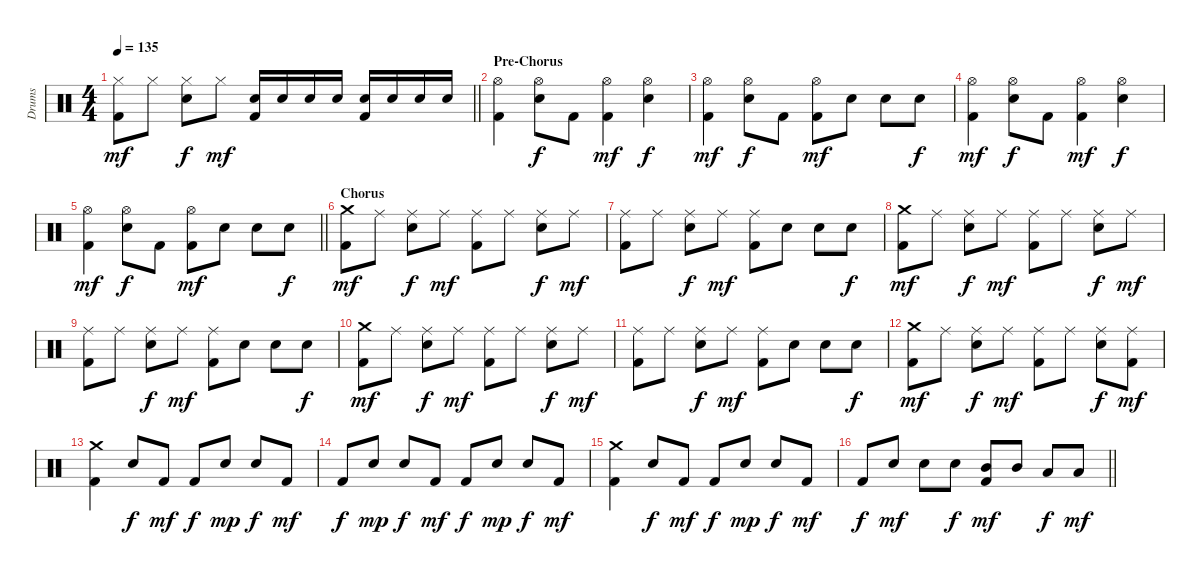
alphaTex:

\track ("Drums" "Drums") {instrument percussion}
\staff {score}
\articulation defaults
\ts (4 4)
\tempo 135
\clef neutral
\barLineRight lightlight
\ks c
("Hi-Hat (closed)" "Kick (hit) 2").8{dy mf} "Hi-Hat (closed)".8 ("Hi-Hat (closed)" "Snare (hit) 2").8{dy f} "Hi-Hat (closed)".8{dy mf} ("Snare (hit) 2" "Kick (hit) 2").16 "Snare (hit) 2".16 "Snare (hit) 2".16 "Snare (hit) 2".16 ("Snare (hit) 2" "Kick (hit) 2").16 "Snare (hit) 2".16 "Snare (hit) 2".16 "Snare (hit) 2".16 |
\section ("" "Pre-Chorus")
("Hi-Hat (open)" "Kick (hit) 2").4 ("Hi-Hat (open)" "Snare (hit) 2").8{dy f} "Kick (hit) 2".8 ("Hi-Hat (open)" "Kick (hit) 2").4{dy mf} ("Hi-Hat (open)" "Snare (hit) 2").4{dy f} |
("Hi-Hat (open)" "Kick (hit) 2").4{dy mf} ("Hi-Hat (open)" "Snare (hit) 2").8{dy f} "Kick (hit) 2".8 ("Hi-Hat (open)" "Kick (hit) 2").8{dy mf} "Snare (hit) 2".8 "Snare (hit) 2".8 "Snare (hit) 2".8{dy f} |
("Hi-Hat (open)" "Kick (hit) 2").4{dy mf} ("Hi-Hat (open)" "Snare (hit) 2").8{dy f} "Kick (hit) 2".8 ("Hi-Hat (open)" "Kick (hit) 2").4{dy mf} ("Hi-Hat (open)" "Snare (hit) 2").4{dy f} |
\barLineRight lightlight
("Hi-Hat (open)" "Kick (hit) 2").4{dy mf} ("Hi-Hat (open)" "Snare (hit) 2").8{dy f} "Kick (hit) 2".8 ("Hi-Hat (open)" "Kick (hit) 2").8{dy mf} "Snare (hit) 2".8 "Snare (hit) 2".8 "Snare (hit) 2".8{dy f} |
\section ("" "Chorus")
("Crash medium (hit)" "Kick (hit) 2").8{dy mf} "Ride (middle)".8 ("Ride (middle)" "Snare (hit) 2").8{dy f} "Ride (middle)".8{dy mf} ("Ride (middle)" "Kick (hit) 2").8 "Ride (middle)".8 ("Ride (middle)" "Snare (hit) 2").8{dy f} "Ride (middle)".8{dy mf} |
("Ride (middle)" "Kick (hit) 2").8 "Ride (middle)".8 ("Ride (middle)" "Snare (hit) 2").8{dy f} "Ride (middle)".8{dy mf} ("Ride (middle)" "Kick (hit) 2").8 "Snare (hit) 2".8 "Snare (hit) 2".8 "Snare (hit) 2".8{dy f} |
("Crash medium (hit)" "Kick (hit) 2").8{dy mf} "Ride (middle)".8 ("Ride (middle)" "Snare (hit) 2").8{dy f} "Ride (middle)".8{dy mf} ("Ride (middle)" "Kick (hit) 2").8 "Ride (middle)".8 ("Ride (middle)" "Snare (hit) 2").8{dy f} "Ride (middle)".8{dy mf} |
("Ride (middle)" "Kick (hit) 2").8 "Ride (middle)".8 ("Ride (middle)" "Snare (hit) 2").8{dy f} "Ride (middle)".8{dy mf} ("Ride (middle)" "Kick (hit) 2").8 "Snare (hit) 2".8 "Snare (hit) 2".8 "Snare (hit) 2".8{dy f} |
("Crash medium (hit)" "Kick (hit) 2").8{dy mf} "Ride (middle)".8 ("Ride (middle)" "Snare (hit) 2").8{dy f} "Ride (middle)".8{dy mf} ("Ride (middle)" "Kick (hit) 2").8 "Ride (middle)".8 ("Ride (middle)" "Snare (hit) 2").8{dy f} "Ride (middle)".8{dy mf} |
("Ride (middle)" "Kick (hit) 2").8 "Ride (middle)".8 ("Ride (middle)" "Snare (hit) 2").8{dy f} "Ride (middle)".8{dy mf} ("Ride (middle)" "Kick (hit) 2").8 "Snare (hit) 2".8 "Snare (hit) 2".8 "Snare (hit) 2".8{dy f} |
("Crash medium (hit)" "Kick (hit) 2").8{dy mf} "Ride (middle)".8 ("Ride (middle)" "Snare (hit) 2").8{dy f} "Ride (middle)".8{dy mf} ("Ride (middle)" "Kick (hit) 2").8 "Ride (middle)".8 ("Ride (middle)" "Snare (hit) 2").8{dy f} ("Ride (middle)" "Kick (hit) 2").8{dy mf} |
("Crash medium (hit)" "Kick (hit) 2").4 "Snare (hit) 2".8{dy f} "Kick (hit) 2".8{dy mf} "Kick (hit) 2".8{dy f} "Snare (hit) 2".8{dy mp} "Snare (hit) 2".8{dy f} "Kick (hit) 2".8{dy mf} |
"Kick (hit) 2".8{dy f} "Snare (hit) 2".8{dy mp} "Snare (hit) 2".8{dy f} "Kick (hit) 2".8{dy mf} "Kick (hit) 2".8{dy f} "Snare (hit) 2".8{dy mp} "Snare (hit) 2".8{dy f} "Kick (hit) 2".8{dy mf} |
("Crash medium (hit)" "Kick (hit) 2").4 "Snare (hit) 2".8{dy f} "Kick (hit) 2".8{dy mf} "Kick (hit) 2".8{dy f} "Snare (hit) 2".8{dy mp} "Snare (hit) 2".8{dy f} "Kick (hit) 2".8{dy mf} |
\barLineRight lightlight "Kick (hit) 2".8{dy f} "Snare (hit) 2".8{dy mf} "Snare (hit) 2".8 "Snare (hit) 2".8{dy f}
("Mid Tom (hit)" "Kick (hit) 2").8{dy mf} "Mid Tom (hit)".8 "Low Tom (hit)".8{dy f} "Low Tom (hit)".8{dy mf}
